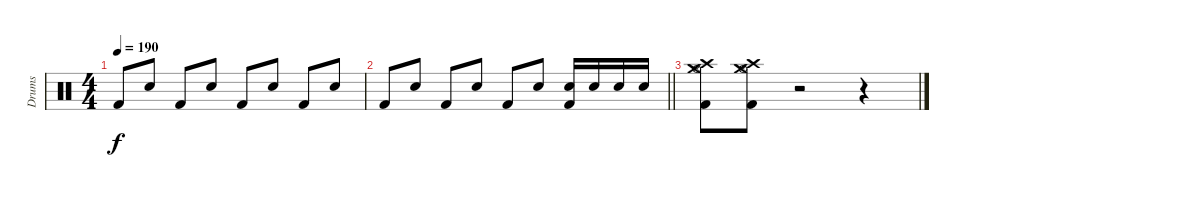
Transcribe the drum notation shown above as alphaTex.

\track ("Drums" "Drums") {instrument percussion}
\staff {score}
\articulation defaults
\ts (4 4)
\tempo 190
\clef neutral
\ks c "Kick (hit) 2".8{dy f} "Electric Snare (hit)".8 "Kick (hit) 2".8 "Electric Snare (hit)".8 "Kick (hit) 2".8 "Electric Snare (hit)".8 "Kick (hit) 2".8 "Electric Snare (hit)".8
|
\barLineRight lightlight "Kick (hit) 2".8 "Electric Snare (hit)".8 "Kick (hit) 2".8 "Electric Snare (hit)".8 "Kick (hit) 2".8 "Electric Snare (hit)".8
("Electric Snare (hit)" "Kick (hit) 2").16 "Electric Snare (hit)".16 "Electric Snare (hit)".16 "Electric Snare (hit)".16 |
("Crash high (hit)" "Hi-Hat (open)" "Kick (hit) 2" "Crash medium (hit)").8 ("Crash high (hit)" "Hi-Hat (open)" "Kick (hit) 2" "Crash medium (hit)").8 r.2 r.4
